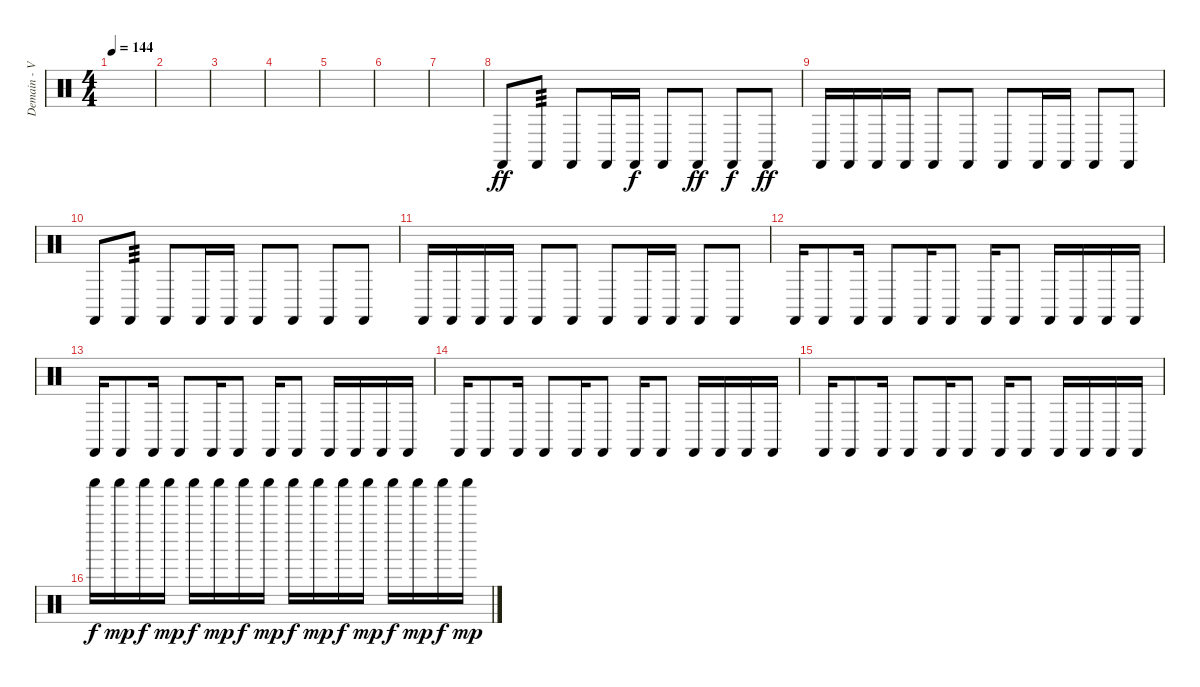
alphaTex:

\track ("Demain - Various Perc." "Demain - V") {instrument percussion}
\staff {score}
\articulation defaults
\ts (4 4)
\tempo 144
\clef neutral
\ks c
|
|
|
|
|
|
|
"Castanets (hit)".8{dy ff} "Castanets (hit)".8{tp 3} "Castanets (hit)".8 "Castanets (hit)".16 "Castanets (hit)".16{dy f} "Castanets (hit)".8 "Castanets (hit)".8{dy ff} "Castanets (hit)".8{dy f} "Castanets (hit)".8{dy ff} |
"Castanets (hit)".16 "Castanets (hit)".16 "Castanets (hit)".16 "Castanets (hit)".16 "Castanets (hit)".8 "Castanets (hit)".8 "Castanets (hit)".8 "Castanets (hit)".16 "Castanets (hit)".16 "Castanets (hit)".8 "Castanets (hit)".8 |
"Castanets (hit)".8 "Castanets (hit)".8{tp 3} "Castanets (hit)".8 "Castanets (hit)".16 "Castanets (hit)".16 "Castanets (hit)".8 "Castanets (hit)".8 "Castanets (hit)".8 "Castanets (hit)".8 |
"Castanets (hit)".16 "Castanets (hit)".16 "Castanets (hit)".16 "Castanets (hit)".16 "Castanets (hit)".8 "Castanets (hit)".8 "Castanets (hit)".8 "Castanets (hit)".16 "Castanets (hit)".16 "Castanets (hit)".8 "Castanets (hit)".8 |
"Castanets (hit)".16 "Castanets (hit)".8 "Castanets (hit)".16 "Castanets (hit)".8 "Castanets (hit)".16 "Castanets (hit)".8 "Castanets (hit)".16 "Castanets (hit)".8 "Castanets (hit)".16 "Castanets (hit)".16 "Castanets (hit)".16 "Castanets (hit)".16 |
"Castanets (hit)".16 "Castanets (hit)".8 "Castanets (hit)".16 "Castanets (hit)".8 "Castanets (hit)".16 "Castanets (hit)".8 "Castanets (hit)".16 "Castanets (hit)".8 "Castanets (hit)".16 "Castanets (hit)".16 "Castanets (hit)".16 "Castanets (hit)".16 |
"Castanets (hit)".16 "Castanets (hit)".8 "Castanets (hit)".16 "Castanets (hit)".8 "Castanets (hit)".16 "Castanets (hit)".8 "Castanets (hit)".16 "Castanets (hit)".8 "Castanets (hit)".16 "Castanets (hit)".16 "Castanets (hit)".16 "Castanets (hit)".16 |
"Castanets (hit)".16 "Castanets (hit)".8 "Castanets (hit)".16 "Castanets (hit)".8 "Castanets (hit)".16 "Castanets (hit)".8 "Castanets (hit)".16 "Castanets (hit)".8 "Castanets (hit)".16 "Castanets (hit)".16 "Castanets (hit)".16 "Castanets (hit)".16 |
"Shaker (hit)".16{dy f} "Shaker (hit)".16{dy mp} "Shaker (hit)".16{dy f} "Shaker (hit)".16{dy mp} "Shaker (hit)".16{dy f} "Shaker (hit)".16{dy mp} "Shaker (hit)".16{dy f} "Shaker (hit)".16{dy mp} "Shaker (hit)".16{dy f} "Shaker (hit)".16{dy mp} "Shaker (hit)".16{dy f} "Shaker (hit)".16{dy mp} "Shaker (hit)".16{dy f} "Shaker (hit)".16{dy mp} "Shaker (hit)".16{dy f} "Shaker (hit)".16{dy mp}
